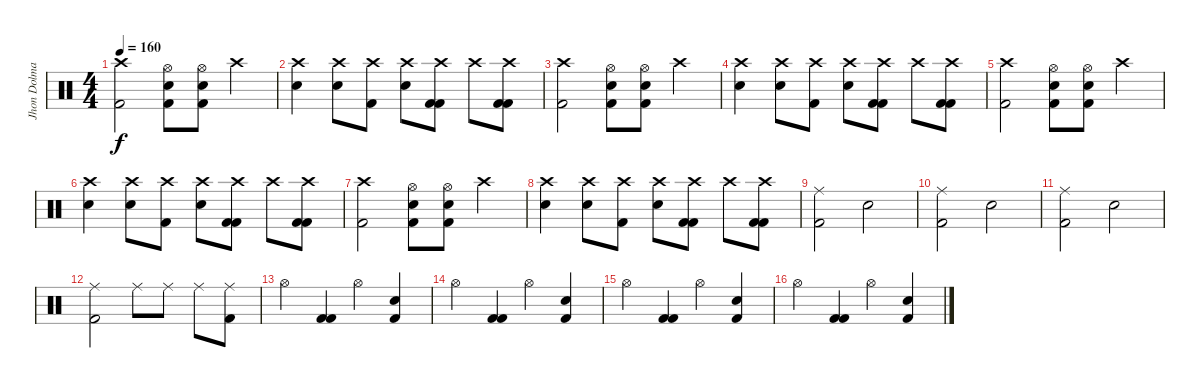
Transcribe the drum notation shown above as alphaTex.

\track ("Jhon Dolmayan(Drum)" "Jhon Dolma") {instrument percussion}
\staff {score}
\articulation defaults
\ts (4 4)
\tempo 160
\clef neutral
\ks c
("Crash high (hit)" "Kick (hit) 2").2{dy f} ("Electric Snare (hit)" "Kick (hit) 2" "Hi-Hat (open)").8 ("Electric Snare (hit)" "Kick (hit) 2" "Hi-Hat (open)").8 "Crash high (hit)".4 |
("Electric Snare (hit)" "Crash high (hit)").4 ("Electric Snare (hit)" "Crash high (hit)").8 ("Crash high (hit)" "Kick (hit) 2").8 ("Electric Snare (hit)" "Crash high (hit)").8 ("Crash high (hit)" "Kick (hit) 2" "Kick (hit) 2").8 "Crash high (hit)".8 ("Crash high (hit)" "Kick (hit) 2" "Kick (hit) 2").8 |
("Crash high (hit)" "Kick (hit) 2").2 ("Electric Snare (hit)" "Kick (hit) 2" "Hi-Hat (open)").8 ("Electric Snare (hit)" "Kick (hit) 2" "Hi-Hat (open)").8 "Crash high (hit)".4 |
("Electric Snare (hit)" "Crash high (hit)").4 ("Electric Snare (hit)" "Crash high (hit)").8 ("Crash high (hit)" "Kick (hit) 2").8 ("Electric Snare (hit)" "Crash high (hit)").8 ("Crash high (hit)" "Kick (hit) 2" "Kick (hit) 2").8 "Crash high (hit)".8 ("Crash high (hit)" "Kick (hit) 2" "Kick (hit) 2").8 |
("Crash high (hit)" "Kick (hit) 2").2 ("Electric Snare (hit)" "Kick (hit) 2" "Hi-Hat (open)").8 ("Electric Snare (hit)" "Kick (hit) 2" "Hi-Hat (open)").8 "Crash high (hit)".4 |
("Electric Snare (hit)" "Crash high (hit)").4 ("Electric Snare (hit)" "Crash high (hit)").8 ("Crash high (hit)" "Kick (hit) 2").8 ("Electric Snare (hit)" "Crash high (hit)").8 ("Crash high (hit)" "Kick (hit) 2" "Kick (hit) 2").8 "Crash high (hit)".8 ("Crash high (hit)" "Kick (hit) 2" "Kick (hit) 2").8 |
("Crash high (hit)" "Kick (hit) 2").2 ("Electric Snare (hit)" "Kick (hit) 2" "Hi-Hat (open)").8 ("Electric Snare (hit)" "Kick (hit) 2" "Hi-Hat (open)").8 "Crash high (hit)".4 |
("Electric Snare (hit)" "Crash high (hit)").4 ("Electric Snare (hit)" "Crash high (hit)").8 ("Crash high (hit)" "Kick (hit) 2").8 ("Electric Snare (hit)" "Crash high (hit)").8 ("Crash high (hit)" "Kick (hit) 2" "Kick (hit) 2").8 "Crash high (hit)".8 ("Crash high (hit)" "Kick (hit) 2" "Kick (hit) 2").8 |
("Kick (hit) 2" "Ride (middle)").2 "Electric Snare (hit)".2 |
("Kick (hit) 2" "Ride (middle)").2 "Electric Snare (hit)".2 |
("Kick (hit) 2" "Ride (middle)").2 "Electric Snare (hit)".2 |
("Kick (hit) 2" "Ride (middle)").2 "Ride (middle)".8 "Ride (middle)".8 "Ride (middle)".8 ("Ride (middle)" "Kick (hit) 2").8 |
"Hi-Hat (open)".4 ("Kick (hit) 2" "Kick (hit) 2").4 "Hi-Hat (open)".4 ("Kick (hit) 2" "Electric Snare (hit)").4 |
"Hi-Hat (open)".4 ("Kick (hit) 2" "Kick (hit) 2").4 "Hi-Hat (open)".4 ("Kick (hit) 2" "Electric Snare (hit)").4 |
"Hi-Hat (open)".4 ("Kick (hit) 2" "Kick (hit) 2").4 "Hi-Hat (open)".4 ("Kick (hit) 2" "Electric Snare (hit)").4 |
"Hi-Hat (open)".4 ("Kick (hit) 2" "Kick (hit) 2").4 "Hi-Hat (open)".4 ("Kick (hit) 2" "Electric Snare (hit)").4
